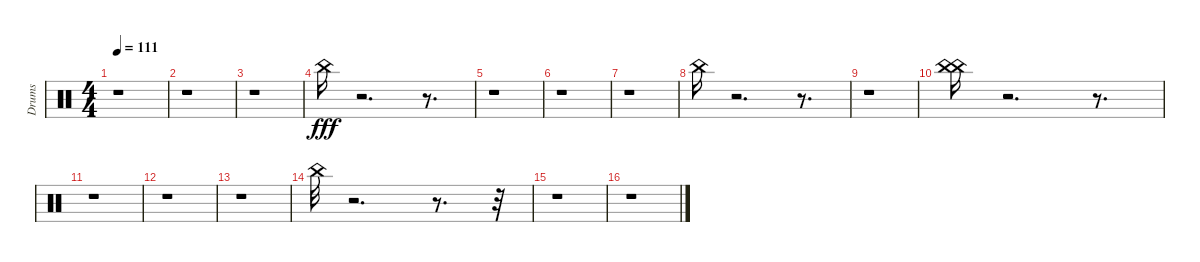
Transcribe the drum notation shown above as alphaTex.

\track ("Drums" "Drums") {instrument percussion}
\staff {score}
\articulation defaults
\ts (4 4)
\tempo 111
\clef neutral
\ks c
r.1{dy fff} |
r.1 |
r.1 |
"China (hit)".16 r.2{d} r.8{d} |
r.1 |
r.1 |
r.1 |
"China (hit)".16 r.2{d} r.8{d} |
r.1 |
("China (hit)" "China (hit)").16 r.2{d} r.8{d} |
r.1 |
r.1 |
r.1 |
"China (hit)".32 r.2{d} r.8{d} r.32 |
r.1 |
r.1
